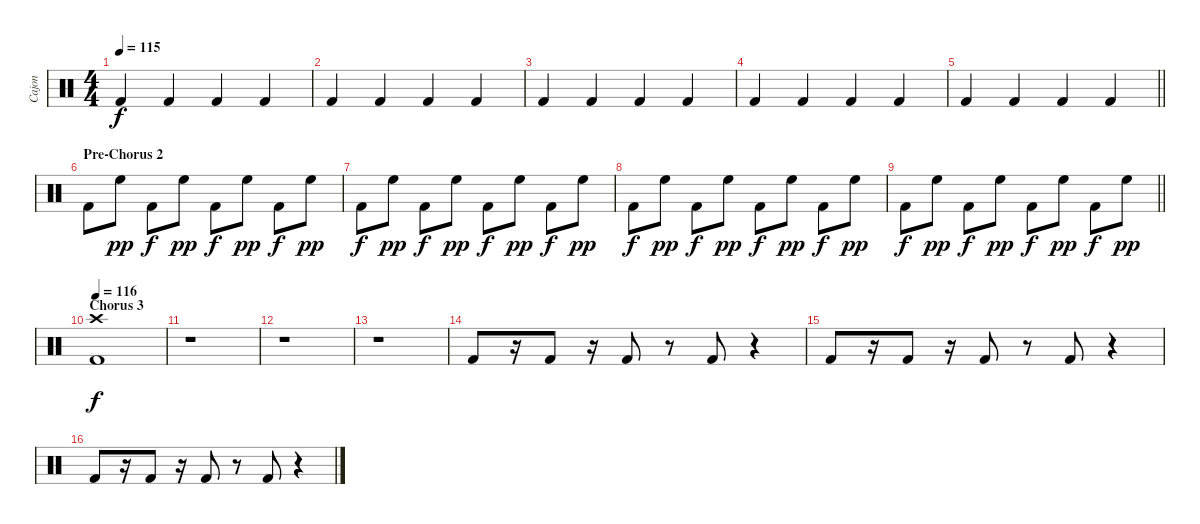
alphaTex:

\track ("Cajon" "Cajon") {instrument percussion}
\staff {score}
\articulation defaults
\ts (4 4)
\tempo 115
\clef neutral
\ks c "Kick (hit) 2".4{dy f} "Kick (hit) 2".4 "Kick (hit) 2".4 "Kick (hit) 2".4
|
"Kick (hit) 2".4 "Kick (hit) 2".4 "Kick (hit) 2".4 "Kick (hit) 2".4 |
"Kick (hit) 2".4 "Kick (hit) 2".4 "Kick (hit) 2".4 "Kick (hit) 2".4 |
"Kick (hit) 2".4 "Kick (hit) 2".4 "Kick (hit) 2".4 "Kick (hit) 2".4 |
\barLineRight lightlight "Kick (hit) 2".4 "Kick (hit) 2".4 "Kick (hit) 2".4 "Kick (hit) 2".4
|
\section ("" "Pre-Chorus 2")
"Kick (hit) 2".8 "High Floor Tom (hit)".8{dy pp} "Kick (hit) 2".8{dy f} "High Floor Tom (hit)".8{dy pp} "Kick (hit) 2".8{dy f} "High Floor Tom (hit)".8{dy pp} "Kick (hit) 2".8{dy f} "High Floor Tom (hit)".8{dy pp} |
"Kick (hit) 2".8{dy f} "High Floor Tom (hit)".8{dy pp} "Kick (hit) 2".8{dy f} "High Floor Tom (hit)".8{dy pp} "Kick (hit) 2".8{dy f} "High Floor Tom (hit)".8{dy pp} "Kick (hit) 2".8{dy f} "High Floor Tom (hit)".8{dy pp} |
"Kick (hit) 2".8{dy f} "High Floor Tom (hit)".8{dy pp} "Kick (hit) 2".8{dy f} "High Floor Tom (hit)".8{dy pp} "Kick (hit) 2".8{dy f} "High Floor Tom (hit)".8{dy pp} "Kick (hit) 2".8{dy f} "High Floor Tom (hit)".8{dy pp} |
\barLineRight lightlight "Kick (hit) 2".8{dy f} "High Floor Tom (hit)".8{dy pp} "Kick (hit) 2".8{dy f} "High Floor Tom (hit)".8{dy pp} "Kick (hit) 2".8{dy f} "High Floor Tom (hit)".8{dy pp} "Kick (hit) 2".8{dy f} "High Floor Tom (hit)".8{dy pp}
|
\section ("" "Chorus 3")
\tempo 116
("Crash high (hit)" "Kick (hit) 2").1{dy f} |
r.1 |
r.1 |
r.1 |
"Kick (hit) 2".8 r.16 "Kick (hit) 2".8 r.16 "Kick (hit) 2".8 r.8 "Kick (hit) 2".8 r.4 |
"Kick (hit) 2".8 r.16 "Kick (hit) 2".8 r.16 "Kick (hit) 2".8 r.8 "Kick (hit) 2".8 r.4 |
"Kick (hit) 2".8 r.16 "Kick (hit) 2".8 r.16 "Kick (hit) 2".8 r.8 "Kick (hit) 2".8 r.4
